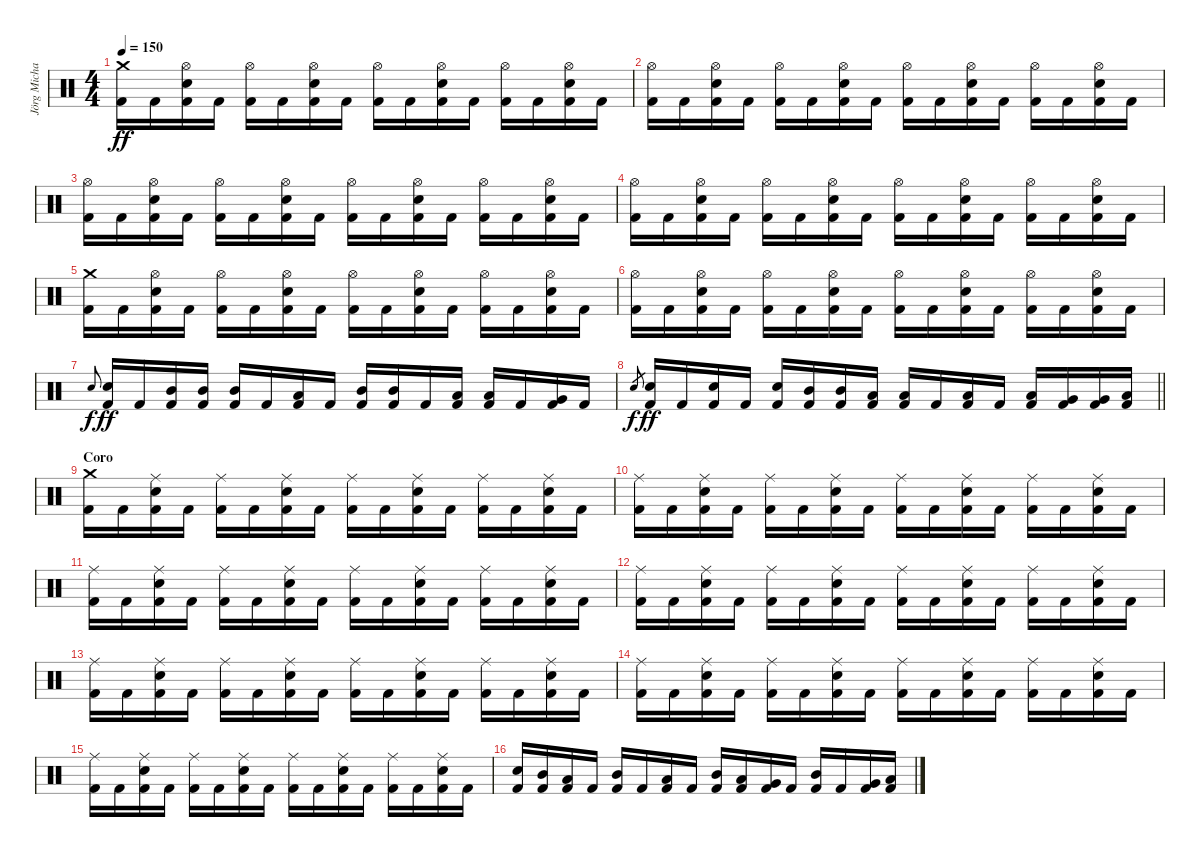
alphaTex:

\track ("Jörg Michael" "Jörg Micha") {instrument percussion}
\staff {score}
\articulation defaults
\ts (4 4)
\tempo 150
\clef neutral
\ks c
("Crash medium (hit)" "Kick (hit) 2").16{dy ff} "Kick (hit) 2".16 ("Hi-Hat (open)" "Electric Snare (hit)" "Kick (hit) 2").16 "Kick (hit) 2".16 ("Hi-Hat (open)" "Kick (hit) 2").16 "Kick (hit) 2".16 ("Hi-Hat (open)" "Electric Snare (hit)" "Kick (hit) 2").16 "Kick (hit) 2".16 ("Hi-Hat (open)" "Kick (hit) 2").16 "Kick (hit) 2".16 ("Hi-Hat (open)" "Electric Snare (hit)" "Kick (hit) 2").16 "Kick (hit) 2".16 ("Hi-Hat (open)" "Kick (hit) 2").16 "Kick (hit) 2".16 ("Hi-Hat (open)" "Electric Snare (hit)" "Kick (hit) 2").16 "Kick (hit) 2".16 |
("Hi-Hat (open)" "Kick (hit) 2").16 "Kick (hit) 2".16 ("Hi-Hat (open)" "Electric Snare (hit)" "Kick (hit) 2").16 "Kick (hit) 2".16 ("Hi-Hat (open)" "Kick (hit) 2").16 "Kick (hit) 2".16 ("Hi-Hat (open)" "Electric Snare (hit)" "Kick (hit) 2").16 "Kick (hit) 2".16 ("Hi-Hat (open)" "Kick (hit) 2").16 "Kick (hit) 2".16 ("Hi-Hat (open)" "Electric Snare (hit)" "Kick (hit) 2").16 "Kick (hit) 2".16 ("Hi-Hat (open)" "Kick (hit) 2").16 "Kick (hit) 2".16 ("Hi-Hat (open)" "Electric Snare (hit)" "Kick (hit) 2").16 "Kick (hit) 2".16 |
("Hi-Hat (open)" "Kick (hit) 2").16 "Kick (hit) 2".16 ("Hi-Hat (open)" "Electric Snare (hit)" "Kick (hit) 2").16 "Kick (hit) 2".16 ("Hi-Hat (open)" "Kick (hit) 2").16 "Kick (hit) 2".16 ("Hi-Hat (open)" "Electric Snare (hit)" "Kick (hit) 2").16 "Kick (hit) 2".16 ("Hi-Hat (open)" "Kick (hit) 2").16 "Kick (hit) 2".16 ("Hi-Hat (open)" "Electric Snare (hit)" "Kick (hit) 2").16 "Kick (hit) 2".16 ("Hi-Hat (open)" "Kick (hit) 2").16 "Kick (hit) 2".16 ("Hi-Hat (open)" "Electric Snare (hit)" "Kick (hit) 2").16 "Kick (hit) 2".16 |
("Hi-Hat (open)" "Kick (hit) 2").16 "Kick (hit) 2".16 ("Hi-Hat (open)" "Electric Snare (hit)" "Kick (hit) 2").16 "Kick (hit) 2".16 ("Hi-Hat (open)" "Kick (hit) 2").16 "Kick (hit) 2".16 ("Hi-Hat (open)" "Electric Snare (hit)" "Kick (hit) 2").16 "Kick (hit) 2".16 ("Hi-Hat (open)" "Kick (hit) 2").16 "Kick (hit) 2".16 ("Hi-Hat (open)" "Electric Snare (hit)" "Kick (hit) 2").16 "Kick (hit) 2".16 ("Hi-Hat (open)" "Kick (hit) 2").16 "Kick (hit) 2".16 ("Hi-Hat (open)" "Electric Snare (hit)" "Kick (hit) 2").16 "Kick (hit) 2".16 |
("Crash medium (hit)" "Kick (hit) 2").16 "Kick (hit) 2".16 ("Hi-Hat (open)" "Electric Snare (hit)" "Kick (hit) 2").16 "Kick (hit) 2".16 ("Hi-Hat (open)" "Kick (hit) 2").16 "Kick (hit) 2".16 ("Hi-Hat (open)" "Electric Snare (hit)" "Kick (hit) 2").16 "Kick (hit) 2".16 ("Hi-Hat (open)" "Kick (hit) 2").16 "Kick (hit) 2".16 ("Hi-Hat (open)" "Electric Snare (hit)" "Kick (hit) 2").16 "Kick (hit) 2".16 ("Hi-Hat (open)" "Kick (hit) 2").16 "Kick (hit) 2".16 ("Hi-Hat (open)" "Electric Snare (hit)" "Kick (hit) 2").16 "Kick (hit) 2".16 |
("Hi-Hat (open)" "Kick (hit) 2").16 "Kick (hit) 2".16 ("Hi-Hat (open)" "Electric Snare (hit)" "Kick (hit) 2").16 "Kick (hit) 2".16 ("Hi-Hat (open)" "Kick (hit) 2").16 "Kick (hit) 2".16 ("Hi-Hat (open)" "Electric Snare (hit)" "Kick (hit) 2").16 "Kick (hit) 2".16 ("Hi-Hat (open)" "Kick (hit) 2").16 "Kick (hit) 2".16 ("Hi-Hat (open)" "Electric Snare (hit)" "Kick (hit) 2").16 "Kick (hit) 2".16 ("Hi-Hat (open)" "Kick (hit) 2").16 "Kick (hit) 2".16 ("Hi-Hat (open)" "Electric Snare (hit)" "Kick (hit) 2").16 "Kick (hit) 2".16 |
"Electric Snare (hit)".8{gr onbeat dy f} ("Electric Snare (hit)" "Kick (hit) 2").16{dy ff} "Kick (hit) 2".16 ("Mid Tom (hit)" "Kick (hit) 2").16 ("Mid Tom (hit)" "Kick (hit) 2").16 ("Mid Tom (hit)" "Kick (hit) 2").16 "Kick (hit) 2".16 ("Low Tom (hit)" "Kick (hit) 2").16 "Kick (hit) 2".16 ("Mid Tom (hit)" "Kick (hit) 2").16 ("Mid Tom (hit)" "Kick (hit) 2").16 "Kick (hit) 2".16 ("Low Tom (hit)" "Kick (hit) 2").16 ("Low Tom (hit)" "Kick (hit) 2").16 "Kick (hit) 2".16 ("Very Low Tom (hit)" "Kick (hit) 2").16 "Kick (hit) 2".16 |
\barLineRight lightlight "Electric Snare (hit)".8{gr dy f}
("Electric Snare (hit)" "Kick (hit) 2").16{dy ff} "Kick (hit) 2".16 ("Electric Snare (hit)" "Kick (hit) 2").16 "Kick (hit) 2".16 ("Electric Snare (hit)" "Kick (hit) 2").16 ("Mid Tom (hit)" "Kick (hit) 2").16 ("Mid Tom (hit)" "Kick (hit) 2").16 ("Low Tom (hit)" "Kick (hit) 2").16 ("Low Tom (hit)" "Kick (hit) 2").16 "Kick (hit) 2".16 ("Low Tom (hit)" "Kick (hit) 2").16 "Kick (hit) 2".16 ("Low Tom (hit)" "Kick (hit) 2").16 ("Very Low Tom (hit)" "Kick (hit) 2").16 ("Very Low Tom (hit)" "Kick (hit) 2").16 ("Low Floor Tom (hit)" "Kick (hit) 2").16 |
\section ("" "Coro")
("Crash medium (hit)" "Kick (hit) 2").16 "Kick (hit) 2".16 ("Ride (middle)" "Electric Snare (hit)" "Kick (hit) 2").16 "Kick (hit) 2".16 ("Ride (middle)" "Kick (hit) 2").16 "Kick (hit) 2".16 ("Ride (middle)" "Electric Snare (hit)" "Kick (hit) 2").16 "Kick (hit) 2".16 ("Ride (middle)" "Kick (hit) 2").16 "Kick (hit) 2".16 ("Ride (middle)" "Electric Snare (hit)" "Kick (hit) 2").16 "Kick (hit) 2".16 ("Ride (middle)" "Kick (hit) 2").16 "Kick (hit) 2".16 ("Ride (middle)" "Electric Snare (hit)" "Kick (hit) 2").16 "Kick (hit) 2".16 |
("Ride (middle)" "Kick (hit) 2").16 "Kick (hit) 2".16 ("Ride (middle)" "Electric Snare (hit)" "Kick (hit) 2").16 "Kick (hit) 2".16 ("Ride (middle)" "Kick (hit) 2").16 "Kick (hit) 2".16 ("Ride (middle)" "Electric Snare (hit)" "Kick (hit) 2").16 "Kick (hit) 2".16 ("Ride (middle)" "Kick (hit) 2").16 "Kick (hit) 2".16 ("Ride (middle)" "Electric Snare (hit)" "Kick (hit) 2").16 "Kick (hit) 2".16 ("Ride (middle)" "Kick (hit) 2").16 "Kick (hit) 2".16 ("Ride (middle)" "Electric Snare (hit)" "Kick (hit) 2").16 "Kick (hit) 2".16 |
("Ride (middle)" "Kick (hit) 2").16 "Kick (hit) 2".16 ("Ride (middle)" "Electric Snare (hit)" "Kick (hit) 2").16 "Kick (hit) 2".16 ("Ride (middle)" "Kick (hit) 2").16 "Kick (hit) 2".16 ("Ride (middle)" "Electric Snare (hit)" "Kick (hit) 2").16 "Kick (hit) 2".16 ("Ride (middle)" "Kick (hit) 2").16 "Kick (hit) 2".16 ("Ride (middle)" "Electric Snare (hit)" "Kick (hit) 2").16 "Kick (hit) 2".16 ("Ride (middle)" "Kick (hit) 2").16 "Kick (hit) 2".16 ("Ride (middle)" "Electric Snare (hit)" "Kick (hit) 2").16 "Kick (hit) 2".16 |
("Ride (middle)" "Kick (hit) 2").16 "Kick (hit) 2".16 ("Ride (middle)" "Electric Snare (hit)" "Kick (hit) 2").16 "Kick (hit) 2".16 ("Ride (middle)" "Kick (hit) 2").16 "Kick (hit) 2".16 ("Ride (middle)" "Electric Snare (hit)" "Kick (hit) 2").16 "Kick (hit) 2".16 ("Ride (middle)" "Kick (hit) 2").16 "Kick (hit) 2".16 ("Ride (middle)" "Electric Snare (hit)" "Kick (hit) 2").16 "Kick (hit) 2".16 ("Ride (middle)" "Kick (hit) 2").16 "Kick (hit) 2".16 ("Ride (middle)" "Electric Snare (hit)" "Kick (hit) 2").16 "Kick (hit) 2".16 |
("Ride (middle)" "Kick (hit) 2").16 "Kick (hit) 2".16 ("Ride (middle)" "Electric Snare (hit)" "Kick (hit) 2").16 "Kick (hit) 2".16 ("Ride (middle)" "Kick (hit) 2").16 "Kick (hit) 2".16 ("Ride (middle)" "Electric Snare (hit)" "Kick (hit) 2").16 "Kick (hit) 2".16 ("Ride (middle)" "Kick (hit) 2").16 "Kick (hit) 2".16 ("Ride (middle)" "Electric Snare (hit)" "Kick (hit) 2").16 "Kick (hit) 2".16 ("Ride (middle)" "Kick (hit) 2").16 "Kick (hit) 2".16 ("Ride (middle)" "Electric Snare (hit)" "Kick (hit) 2").16 "Kick (hit) 2".16 |
("Ride (middle)" "Kick (hit) 2").16 "Kick (hit) 2".16 ("Ride (middle)" "Electric Snare (hit)" "Kick (hit) 2").16 "Kick (hit) 2".16 ("Ride (middle)" "Kick (hit) 2").16 "Kick (hit) 2".16 ("Ride (middle)" "Electric Snare (hit)" "Kick (hit) 2").16 "Kick (hit) 2".16 ("Ride (middle)" "Kick (hit) 2").16 "Kick (hit) 2".16 ("Ride (middle)" "Electric Snare (hit)" "Kick (hit) 2").16 "Kick (hit) 2".16 ("Ride (middle)" "Kick (hit) 2").16 "Kick (hit) 2".16 ("Ride (middle)" "Electric Snare (hit)" "Kick (hit) 2").16 "Kick (hit) 2".16 |
("Ride (middle)" "Kick (hit) 2").16 "Kick (hit) 2".16 ("Ride (middle)" "Electric Snare (hit)" "Kick (hit) 2").16 "Kick (hit) 2".16 ("Ride (middle)" "Kick (hit) 2").16 "Kick (hit) 2".16 ("Ride (middle)" "Electric Snare (hit)" "Kick (hit) 2").16 "Kick (hit) 2".16 ("Ride (middle)" "Kick (hit) 2").16 "Kick (hit) 2".16 ("Ride (middle)" "Electric Snare (hit)" "Kick (hit) 2").16 "Kick (hit) 2".16 ("Ride (middle)" "Kick (hit) 2").16 "Kick (hit) 2".16 ("Ride (middle)" "Electric Snare (hit)" "Kick (hit) 2").16 "Kick (hit) 2".16 |
("Electric Snare (hit)" "Kick (hit) 2").16 ("Mid Tom (hit)" "Kick (hit) 2").16 ("Low Tom (hit)" "Kick (hit) 2").16 "Kick (hit) 2".16 ("Mid Tom (hit)" "Kick (hit) 2").16 "Kick (hit) 2".16 ("Low Tom (hit)" "Kick (hit) 2").16 "Kick (hit) 2".16 ("Mid Tom (hit)" "Kick (hit) 2").16 ("Low Tom (hit)" "Kick (hit) 2").16 ("Very Low Tom (hit)" "Kick (hit) 2").16 "Kick (hit) 2".16 ("Mid Tom (hit)" "Kick (hit) 2").16 "Kick (hit) 2".16 ("Very Low Tom (hit)" "Kick (hit) 2").16 ("Low Floor Tom (hit)" "Kick (hit) 2").16
